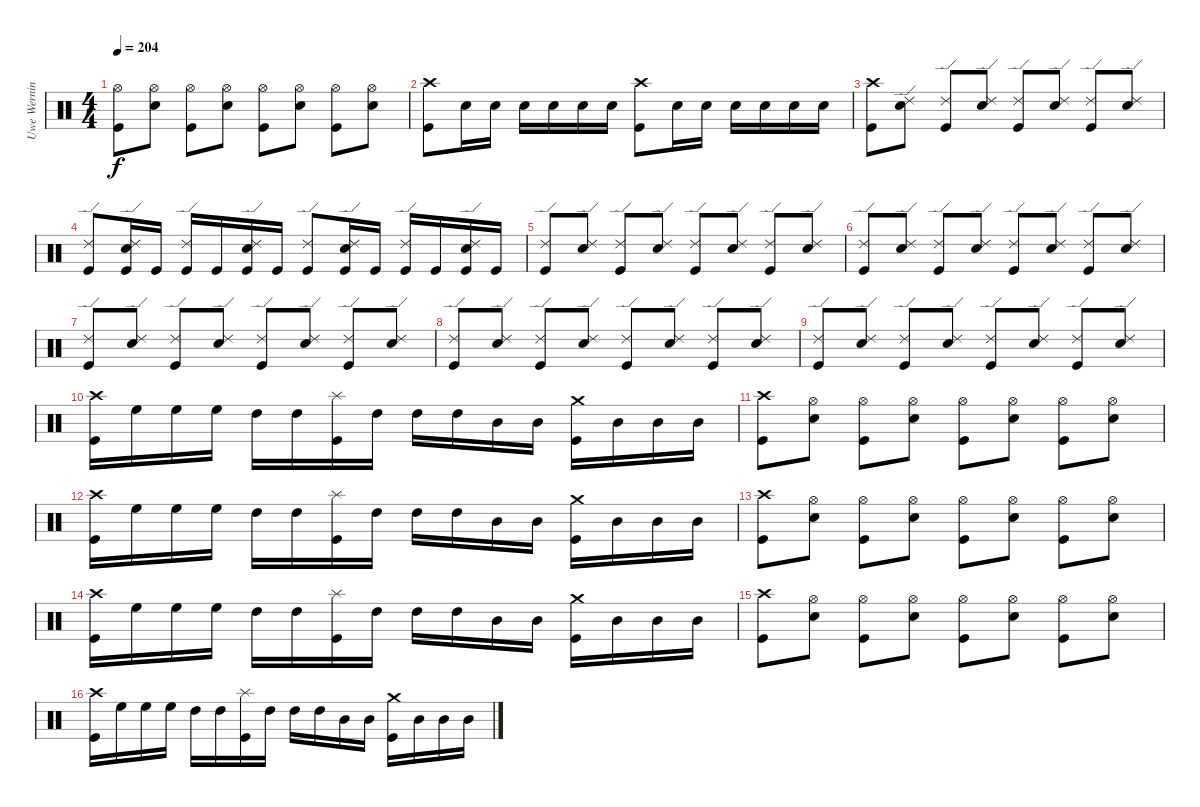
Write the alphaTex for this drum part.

\track ("Uwe Werning" "Uwe Wernin") {instrument percussion}
\staff {score}
\articulation defaults
\ts (4 4)
\tempo 204
\clef neutral
\ks c
("Hi-Hat (open)" "Kick (hit)").8{dy f} ("Hi-Hat (open)" "Snare (hit) 2").8 ("Hi-Hat (open)" "Kick (hit)").8 ("Hi-Hat (open)" "Snare (hit) 2").8 ("Hi-Hat (open)" "Kick (hit)").8 ("Hi-Hat (open)" "Snare (hit) 2").8 ("Hi-Hat (open)" "Kick (hit)").8 ("Hi-Hat (open)" "Snare (hit) 2").8 |
("Crash high (hit)" "Kick (hit)").8 "Snare (hit) 2".16 "Snare (hit) 2".16 "Snare (hit) 2".16 "Snare (hit) 2".16 "Snare (hit) 2".16 "Snare (hit) 2".16 ("Crash high (hit)" "Kick (hit)").8 "Snare (hit) 2".16 "Snare (hit) 2".16 "Snare (hit) 2".16 "Snare (hit) 2".16 "Snare (hit) 2".16 "Snare (hit) 2".16 |
("Crash high (hit)" "Kick (hit)").8 ("Ride (edge) 2" "Snare (hit) 2").8 ("Ride (edge) 2" "Kick (hit)").8 ("Ride (edge) 2" "Snare (hit) 2").8 ("Ride (edge) 2" "Kick (hit)").8 ("Ride (edge) 2" "Snare (hit) 2").8 ("Ride (edge) 2" "Kick (hit)").8 ("Ride (edge) 2" "Snare (hit) 2").8 |
("Ride (edge) 2" "Kick (hit)").8 ("Ride (edge) 2" "Snare (hit) 2" "Kick (hit)").16 "Kick (hit)".16 ("Ride (edge) 2" "Kick (hit)").16 "Kick (hit)".16 ("Ride (edge) 2" "Snare (hit) 2" "Kick (hit)").16 "Kick (hit)".16 ("Ride (edge) 2" "Kick (hit)").8 ("Ride (edge) 2" "Snare (hit) 2" "Kick (hit)").16 "Kick (hit)".16 ("Ride (edge) 2" "Kick (hit)").16 "Kick (hit)".16 ("Ride (edge) 2" "Snare (hit) 2" "Kick (hit)").16 "Kick (hit)".16 |
("Ride (edge) 2" "Kick (hit)").8 ("Ride (edge) 2" "Snare (hit) 2").8 ("Ride (edge) 2" "Kick (hit)").8 ("Ride (edge) 2" "Snare (hit) 2").8 ("Ride (edge) 2" "Kick (hit)").8 ("Ride (edge) 2" "Snare (hit) 2").8 ("Ride (edge) 2" "Kick (hit)").8 ("Ride (edge) 2" "Snare (hit) 2").8 |
("Ride (edge) 2" "Kick (hit)").8 ("Ride (edge) 2" "Snare (hit) 2").8 ("Ride (edge) 2" "Kick (hit)").8 ("Ride (edge) 2" "Snare (hit) 2").8 ("Ride (edge) 2" "Kick (hit)").8 ("Ride (edge) 2" "Snare (hit) 2").8 ("Ride (edge) 2" "Kick (hit)").8 ("Ride (edge) 2" "Snare (hit) 2").8 |
("Ride (edge) 2" "Kick (hit)").8 ("Ride (edge) 2" "Snare (hit) 2").8 ("Ride (edge) 2" "Kick (hit)").8 ("Ride (edge) 2" "Snare (hit) 2").8 ("Ride (edge) 2" "Kick (hit)").8 ("Ride (edge) 2" "Snare (hit) 2").8 ("Ride (edge) 2" "Kick (hit)").8 ("Ride (edge) 2" "Snare (hit) 2").8 |
("Ride (edge) 2" "Kick (hit)").8 ("Ride (edge) 2" "Snare (hit) 2").8 ("Ride (edge) 2" "Kick (hit)").8 ("Ride (edge) 2" "Snare (hit) 2").8 ("Ride (edge) 2" "Kick (hit)").8 ("Ride (edge) 2" "Snare (hit) 2").8 ("Ride (edge) 2" "Kick (hit)").8 ("Ride (edge) 2" "Snare (hit) 2").8 |
("Ride (edge) 2" "Kick (hit)").8 ("Ride (edge) 2" "Snare (hit) 2").8 ("Ride (edge) 2" "Kick (hit)").8 ("Ride (edge) 2" "Snare (hit) 2").8 ("Ride (edge) 2" "Kick (hit)").8 ("Ride (edge) 2" "Snare (hit) 2").8 ("Ride (edge) 2" "Kick (hit)").8 ("Ride (edge) 2" "Snare (hit) 2").8 |
("Crash high (hit)" "Kick (hit)").16 "High Floor Tom (hit)".16 "High Floor Tom (hit)".16 "High Floor Tom (hit)".16 "High Tom (hit)".16 "High Tom (hit)".16 ("Splash (hit)" "Kick (hit)").16 "High Tom (hit)".16 "High Tom (hit)".16 "High Tom (hit)".16 "Mid Tom (hit)".16 "Mid Tom (hit)".16 ("Crash medium (hit)" "Kick (hit)").16 "Mid Tom (hit)".16 "Mid Tom (hit)".16 "Mid Tom (hit)".16 |
("Crash high (hit)" "Kick (hit)").8 ("Hi-Hat (open)" "Snare (hit) 2").8 ("Hi-Hat (open)" "Kick (hit)").8 ("Hi-Hat (open)" "Snare (hit) 2").8 ("Hi-Hat (open)" "Kick (hit)").8 ("Hi-Hat (open)" "Snare (hit) 2").8 ("Hi-Hat (open)" "Kick (hit)").8 ("Hi-Hat (open)" "Snare (hit) 2").8 |
("Crash high (hit)" "Kick (hit)").16 "High Floor Tom (hit)".16 "High Floor Tom (hit)".16 "High Floor Tom (hit)".16 "High Tom (hit)".16 "High Tom (hit)".16 ("Splash (hit)" "Kick (hit)").16 "High Tom (hit)".16 "High Tom (hit)".16 "High Tom (hit)".16 "Mid Tom (hit)".16 "Mid Tom (hit)".16 ("Crash medium (hit)" "Kick (hit)").16 "Mid Tom (hit)".16 "Mid Tom (hit)".16 "Mid Tom (hit)".16 |
("Crash high (hit)" "Kick (hit)").8 ("Hi-Hat (open)" "Snare (hit) 2").8 ("Hi-Hat (open)" "Kick (hit)").8 ("Hi-Hat (open)" "Snare (hit) 2").8 ("Hi-Hat (open)" "Kick (hit)").8 ("Hi-Hat (open)" "Snare (hit) 2").8 ("Hi-Hat (open)" "Kick (hit)").8 ("Hi-Hat (open)" "Snare (hit) 2").8 |
("Crash high (hit)" "Kick (hit)").16 "High Floor Tom (hit)".16 "High Floor Tom (hit)".16 "High Floor Tom (hit)".16 "High Tom (hit)".16 "High Tom (hit)".16 ("Splash (hit)" "Kick (hit)").16 "High Tom (hit)".16 "High Tom (hit)".16 "High Tom (hit)".16 "Mid Tom (hit)".16 "Mid Tom (hit)".16 ("Crash medium (hit)" "Kick (hit)").16 "Mid Tom (hit)".16 "Mid Tom (hit)".16 "Mid Tom (hit)".16 |
("Crash high (hit)" "Kick (hit)").8 ("Hi-Hat (open)" "Snare (hit) 2").8 ("Hi-Hat (open)" "Kick (hit)").8 ("Hi-Hat (open)" "Snare (hit) 2").8 ("Hi-Hat (open)" "Kick (hit)").8 ("Hi-Hat (open)" "Snare (hit) 2").8 ("Hi-Hat (open)" "Kick (hit)").8 ("Hi-Hat (open)" "Snare (hit) 2").8 |
("Crash high (hit)" "Kick (hit)").16 "High Floor Tom (hit)".16 "High Floor Tom (hit)".16 "High Floor Tom (hit)".16 "High Tom (hit)".16 "High Tom (hit)".16 ("Splash (hit)" "Kick (hit)").16 "High Tom (hit)".16 "High Tom (hit)".16 "High Tom (hit)".16 "Mid Tom (hit)".16 "Mid Tom (hit)".16 ("Crash medium (hit)" "Kick (hit)").16 "Mid Tom (hit)".16 "Mid Tom (hit)".16 "Mid Tom (hit)".16
